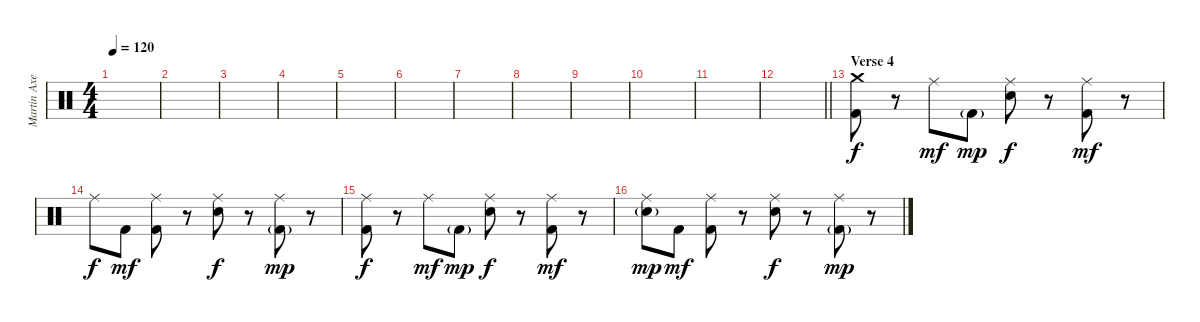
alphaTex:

\track ("Martin Axenrot - Drums" "Martin Axe") {instrument percussion}
\staff {score}
\articulation defaults
\ts (4 4)
\tempo 120
\clef neutral
\ks c
|
|
|
|
|
|
|
|
|
|
|
\barLineRight lightlight
|
\section ("" "Verse 4")
("Crash medium (hit)" "Kick (hit) 2").8{dy f volume 13} r.8 "Ride (middle)".8{dy mf} "Kick (hit) 2"{g}.8{dy mp} ("Ride (middle)" "Snare (hit) 2").8{dy f} r.8 ("Ride (middle)" "Kick (hit) 2").8{dy mf} r.8 |
"Ride (middle)".8{dy f} "Kick (hit) 2".8{dy mf} ("Ride (middle)" "Kick (hit) 2").8 r.8 ("Ride (middle)" "Snare (hit) 2").8{dy f} r.8 ("Ride (middle)" "Kick (hit) 2"{g}).8{dy mp} r.8 |
("Ride (middle)" "Kick (hit) 2").8{dy f} r.8 "Ride (middle)".8{dy mf} "Kick (hit) 2"{g}.8{dy mp} ("Ride (middle)" "Snare (hit) 2").8{dy f} r.8 ("Ride (middle)" "Kick (hit) 2").8{dy mf} r.8 |
("Ride (middle)" "Snare (hit) 2"{g}).8{dy mp} "Kick (hit) 2".8{dy mf} ("Ride (middle)" "Kick (hit) 2").8 r.8 ("Ride (middle)" "Snare (hit) 2").8{dy f} r.8 ("Ride (middle)" "Kick (hit) 2"{g}).8{dy mp} r.8
